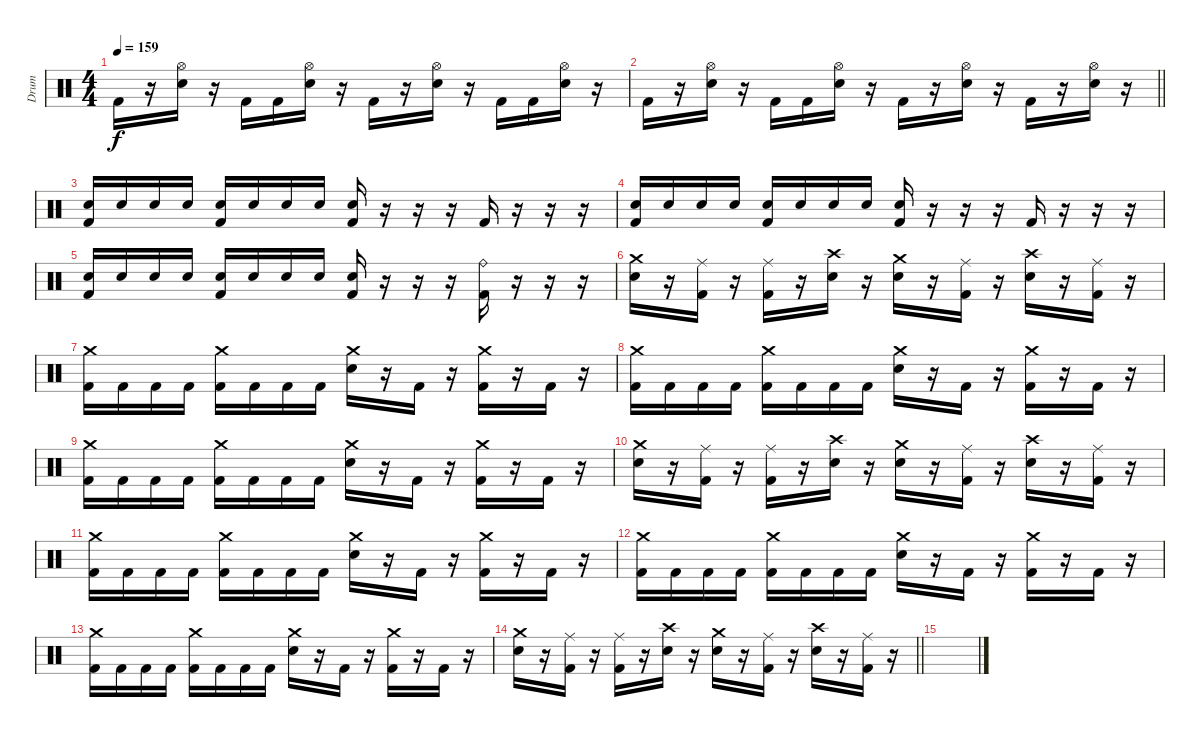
\track ("Drum" "Drum") {instrument percussion}
\staff {score}
\articulation defaults
\ts (4 4)
\tempo 159
\clef neutral
\ks c "Kick (hit) 2".16{dy f}
r.16 ("Hi-Hat (open)" "Snare (hit) 2").16 r.16 "Kick (hit) 2".16 "Kick (hit) 2".16 ("Hi-Hat (open)" "Snare (hit) 2").16 r.16 "Kick (hit) 2".16 r.16 ("Hi-Hat (open)" "Snare (hit) 2").16 r.16 "Kick (hit) 2".16 "Kick (hit) 2".16 ("Hi-Hat (open)" "Snare (hit) 2").16 r.16 |
\barLineRight lightlight "Kick (hit) 2".16
r.16 ("Hi-Hat (open)" "Snare (hit) 2").16 r.16 "Kick (hit) 2".16 "Kick (hit) 2".16 ("Hi-Hat (open)" "Snare (hit) 2").16 r.16 "Kick (hit) 2".16 r.16 ("Hi-Hat (open)" "Snare (hit) 2").16 r.16 "Kick (hit) 2".16 r.16 ("Hi-Hat (open)" "Snare (hit) 2").16 r.16 |
\section ("" "")
("Kick (hit) 2" "Snare (hit) 2").16 "Snare (hit) 2".16 "Snare (hit) 2".16 "Snare (hit) 2".16 ("Kick (hit) 2" "Snare (hit) 2").16 "Snare (hit) 2".16 "Snare (hit) 2".16 "Snare (hit) 2".16 ("Kick (hit) 2" "Snare (hit) 2").16 r.16 r.16 r.16 "Kick (hit) 2".16 r.16 r.16 r.16 |
("Kick (hit) 2" "Snare (hit) 2").16 "Snare (hit) 2".16 "Snare (hit) 2".16 "Snare (hit) 2".16 ("Kick (hit) 2" "Snare (hit) 2").16 "Snare (hit) 2".16 "Snare (hit) 2".16 "Snare (hit) 2".16 ("Kick (hit) 2" "Snare (hit) 2").16 r.16 r.16 r.16 "Kick (hit) 2".16 r.16 r.16 r.16 |
("Kick (hit) 2" "Snare (hit) 2").16 "Snare (hit) 2".16 "Snare (hit) 2".16 "Snare (hit) 2".16 ("Kick (hit) 2" "Snare (hit) 2").16 "Snare (hit) 2".16 "Snare (hit) 2".16 "Snare (hit) 2".16 ("Kick (hit) 2" "Snare (hit) 2").16 r.16 r.16 r.16 ("Ride (bell)" "Kick (hit) 2").16 r.16 r.16 r.16 |
("Crash medium (hit)" "Snare (hit) 2").16 r.16 ("Ride (middle)" "Kick (hit) 2").16 r.16 ("Ride (middle)" "Kick (hit) 2").16 r.16 ("Crash high (hit)" "Snare (hit) 2").16 r.16 ("Crash medium (hit)" "Snare (hit) 2").16 r.16 ("Ride (middle)" "Kick (hit) 2").16 r.16 ("Crash high (hit)" "Snare (hit) 2").16 r.16 ("Ride (middle)" "Kick (hit) 2").16 r.16 |
("Crash medium (hit)" "Kick (hit) 2").16 "Kick (hit) 2".16 "Kick (hit) 2".16 "Kick (hit) 2".16 ("Crash medium (hit)" "Kick (hit) 2").16 "Kick (hit) 2".16 "Kick (hit) 2".16 "Kick (hit) 2".16 ("Crash medium (hit)" "Snare (hit) 2").16 r.16 "Kick (hit) 2".16 r.16 ("Crash medium (hit)" "Kick (hit) 2").16 r.16 "Kick (hit) 2".16 r.16 |
("Crash medium (hit)" "Kick (hit) 2").16 "Kick (hit) 2".16 "Kick (hit) 2".16 "Kick (hit) 2".16 ("Crash medium (hit)" "Kick (hit) 2").16 "Kick (hit) 2".16 "Kick (hit) 2".16 "Kick (hit) 2".16 ("Crash medium (hit)" "Snare (hit) 2").16 r.16 "Kick (hit) 2".16 r.16 ("Crash medium (hit)" "Kick (hit) 2").16 r.16 "Kick (hit) 2".16 r.16 |
("Crash medium (hit)" "Kick (hit) 2").16 "Kick (hit) 2".16 "Kick (hit) 2".16 "Kick (hit) 2".16 ("Crash medium (hit)" "Kick (hit) 2").16 "Kick (hit) 2".16 "Kick (hit) 2".16 "Kick (hit) 2".16 ("Crash medium (hit)" "Snare (hit) 2").16 r.16 "Kick (hit) 2".16 r.16 ("Crash medium (hit)" "Kick (hit) 2").16 r.16 "Kick (hit) 2".16 r.16 |
("Crash medium (hit)" "Snare (hit) 2").16 r.16 ("Ride (middle)" "Kick (hit) 2").16 r.16 ("Ride (middle)" "Kick (hit) 2").16 r.16 ("Crash high (hit)" "Snare (hit) 2").16 r.16 ("Crash medium (hit)" "Snare (hit) 2").16 r.16 ("Ride (middle)" "Kick (hit) 2").16 r.16 ("Crash high (hit)" "Snare (hit) 2").16 r.16 ("Ride (middle)" "Kick (hit) 2").16 r.16 |
("Crash medium (hit)" "Kick (hit) 2").16 "Kick (hit) 2".16 "Kick (hit) 2".16 "Kick (hit) 2".16 ("Crash medium (hit)" "Kick (hit) 2").16 "Kick (hit) 2".16 "Kick (hit) 2".16 "Kick (hit) 2".16 ("Crash medium (hit)" "Snare (hit) 2").16 r.16 "Kick (hit) 2".16 r.16 ("Crash medium (hit)" "Kick (hit) 2").16 r.16 "Kick (hit) 2".16 r.16 |
("Crash medium (hit)" "Kick (hit) 2").16 "Kick (hit) 2".16 "Kick (hit) 2".16 "Kick (hit) 2".16 ("Crash medium (hit)" "Kick (hit) 2").16 "Kick (hit) 2".16 "Kick (hit) 2".16 "Kick (hit) 2".16 ("Crash medium (hit)" "Snare (hit) 2").16 r.16 "Kick (hit) 2".16 r.16 ("Crash medium (hit)" "Kick (hit) 2").16 r.16 "Kick (hit) 2".16 r.16 |
("Crash medium (hit)" "Kick (hit) 2").16 "Kick (hit) 2".16 "Kick (hit) 2".16 "Kick (hit) 2".16 ("Crash medium (hit)" "Kick (hit) 2").16 "Kick (hit) 2".16 "Kick (hit) 2".16 "Kick (hit) 2".16 ("Crash medium (hit)" "Snare (hit) 2").16 r.16 "Kick (hit) 2".16 r.16 ("Crash medium (hit)" "Kick (hit) 2").16 r.16 "Kick (hit) 2".16 r.16 |
\barLineRight lightlight
("Crash medium (hit)" "Snare (hit) 2").16 r.16 ("Ride (middle)" "Kick (hit) 2").16 r.16 ("Ride (middle)" "Kick (hit) 2").16 r.16 ("Crash high (hit)" "Snare (hit) 2").16 r.16 ("Crash medium (hit)" "Snare (hit) 2").16 r.16 ("Ride (middle)" "Kick (hit) 2").16 r.16 ("Crash high (hit)" "Snare (hit) 2").16 r.16 ("Ride (middle)" "Kick (hit) 2").16 r.16 |
\section ("" "")
